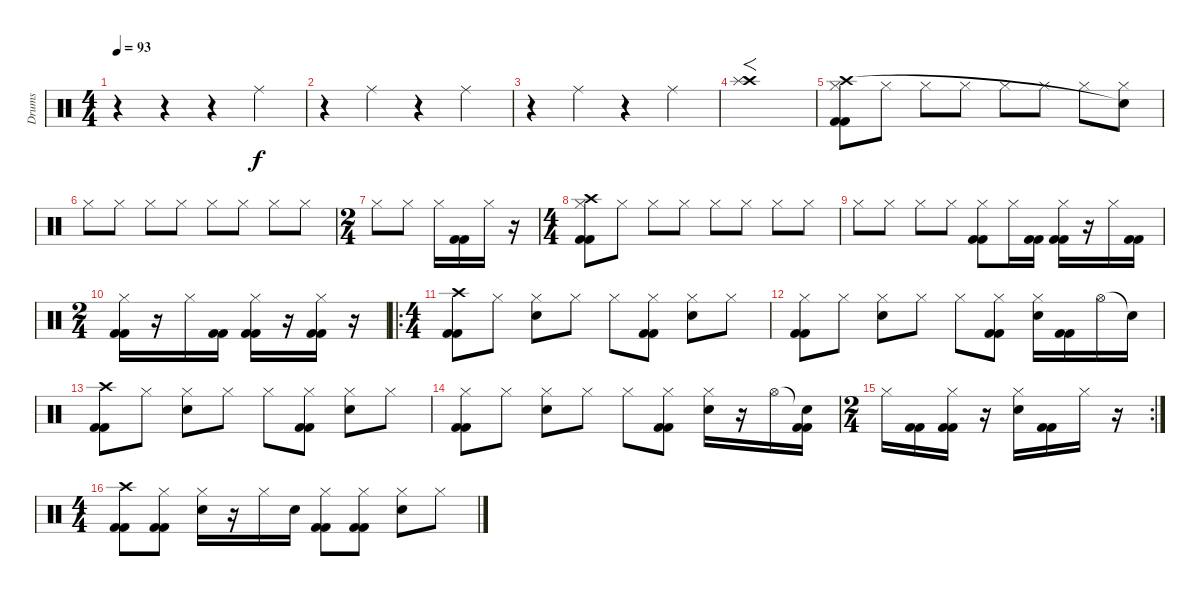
\track ("Drums" "Drums") {instrument percussion}
\staff {score}
\articulation defaults
\ts (4 4)
\tempo 93
\clef neutral
\ks c
r.4{dy f} r.4 r.4 "Ride (middle)".4 |
r.4 "Ride (middle)".4 r.4 "Ride (middle)".4 |
r.4 "Ride (middle)".4 r.4 "Ride (middle)".4 |
("Crash high (hit)" "Splash (hit)").1{f volume 16} |
("Hi-Hat (closed)" "Crash high (hit)" "Kick (hit) 2" "Kick (hit) 2").8{volume 13} "Hi-Hat (closed)".8 "Hi-Hat (closed)".8 "Hi-Hat (closed)".8 "Hi-Hat (closed)".8 "Hi-Hat (closed)".8 "Hi-Hat (closed)".8 ("Hi-Hat (closed)" "Snare (hit)"{t}).8 |
"Hi-Hat (closed)".8 "Hi-Hat (closed)".8 "Hi-Hat (closed)".8 "Hi-Hat (closed)".8 "Hi-Hat (closed)".8 "Hi-Hat (closed)".8 "Hi-Hat (closed)".8 "Hi-Hat (closed)".8 |
\ts (2 4)
"Hi-Hat (closed)".8 "Hi-Hat (closed)".8 "Hi-Hat (closed)".16 ("Kick (hit) 2" "Kick (hit) 2").16 "Hi-Hat (closed)".16 r.16 |
\ts (4 4)
("Hi-Hat (closed)" "Crash high (hit)" "Kick (hit) 2" "Kick (hit) 2").8 "Hi-Hat (closed)".8 "Hi-Hat (closed)".8 "Hi-Hat (closed)".8 "Hi-Hat (closed)".8 "Hi-Hat (closed)".8 "Hi-Hat (closed)".8 "Hi-Hat (closed)".8 |
"Hi-Hat (closed)".8 "Hi-Hat (closed)".8 "Hi-Hat (closed)".8 "Hi-Hat (closed)".8 ("Hi-Hat (closed)" "Kick (hit) 2" "Kick (hit) 2").8 "Hi-Hat (closed)".16 ("Kick (hit) 2" "Kick (hit) 2").16 ("Hi-Hat (closed)" "Kick (hit) 2" "Kick (hit) 2").16 r.16 "Hi-Hat (closed)".16 ("Kick (hit) 2" "Kick (hit) 2").16 |
\ts (2 4)
("Hi-Hat (closed)" "Kick (hit) 2" "Kick (hit) 2").16 r.16 "Hi-Hat (closed)".16 ("Kick (hit) 2" "Kick (hit) 2").16 ("Hi-Hat (closed)" "Kick (hit) 2" "Kick (hit) 2").16 r.16 ("Hi-Hat (closed)" "Kick (hit) 2" "Kick (hit) 2").16 r.16 |
\ro
\ts (4 4)
("Crash high (hit)" "Kick (hit) 2" "Kick (hit) 2").8 "Hi-Hat (closed)".8 ("Hi-Hat (closed)" "Electric Snare (hit)").8 "Hi-Hat (closed)".8 "Hi-Hat (closed)".8 ("Hi-Hat (closed)" "Kick (hit) 2" "Kick (hit) 2").8 ("Hi-Hat (closed)" "Electric Snare (hit)").8 "Hi-Hat (closed)".8 |
("Hi-Hat (closed)" "Kick (hit) 2" "Kick (hit) 2").8 "Hi-Hat (closed)".8 ("Hi-Hat (closed)" "Electric Snare (hit)").8 "Hi-Hat (closed)".8 "Hi-Hat (closed)".8 ("Hi-Hat (closed)" "Kick (hit) 2" "Kick (hit) 2").8 ("Hi-Hat (closed)" "Electric Snare (hit)").16 ("Kick (hit) 2" "Kick (hit) 2").16 "Hi-Hat (open)".16 "Snare (hit)"{t}.16 |
("Crash high (hit)" "Kick (hit) 2" "Kick (hit) 2").8 "Hi-Hat (closed)".8 ("Hi-Hat (closed)" "Electric Snare (hit)").8 "Hi-Hat (closed)".8 "Hi-Hat (closed)".8 ("Hi-Hat (closed)" "Kick (hit) 2" "Kick (hit) 2").8 ("Hi-Hat (closed)" "Electric Snare (hit)").8 "Hi-Hat (closed)".8 |
("Hi-Hat (closed)" "Kick (hit) 2" "Kick (hit) 2").8 "Hi-Hat (closed)".8 ("Hi-Hat (closed)" "Electric Snare (hit)").8 "Hi-Hat (closed)".8 "Hi-Hat (closed)".8 ("Hi-Hat (closed)" "Kick (hit) 2" "Kick (hit) 2").8 ("Hi-Hat (closed)" "Electric Snare (hit)").16 r.16 "Hi-Hat (open)".16 ("Snare (hit)"{t} "Kick (hit) 2" "Kick (hit) 2").16 |
\rc 2
\ts (2 4)
"Hi-Hat (closed)".16 ("Kick (hit) 2" "Kick (hit) 2").16 ("Hi-Hat (closed)" "Kick (hit) 2" "Kick (hit) 2").16 r.16 ("Hi-Hat (closed)" "Electric Snare (hit)").16 ("Kick (hit) 2" "Kick (hit) 2").16 "Hi-Hat (closed)".16 r.16 |
\ts (4 4)
("Crash high (hit)" "Kick (hit) 2" "Kick (hit) 2").8 ("Hi-Hat (closed)" "Kick (hit) 2" "Kick (hit) 2").8 ("Hi-Hat (closed)" "Electric Snare (hit)").16 r.16 "Hi-Hat (closed)".16 "Electric Snare (hit)".16 ("Hi-Hat (closed)" "Kick (hit) 2" "Kick (hit) 2").8 ("Hi-Hat (closed)" "Kick (hit) 2" "Kick (hit) 2").8 ("Hi-Hat (closed)" "Electric Snare (hit)").8 "Hi-Hat (closed)".8
